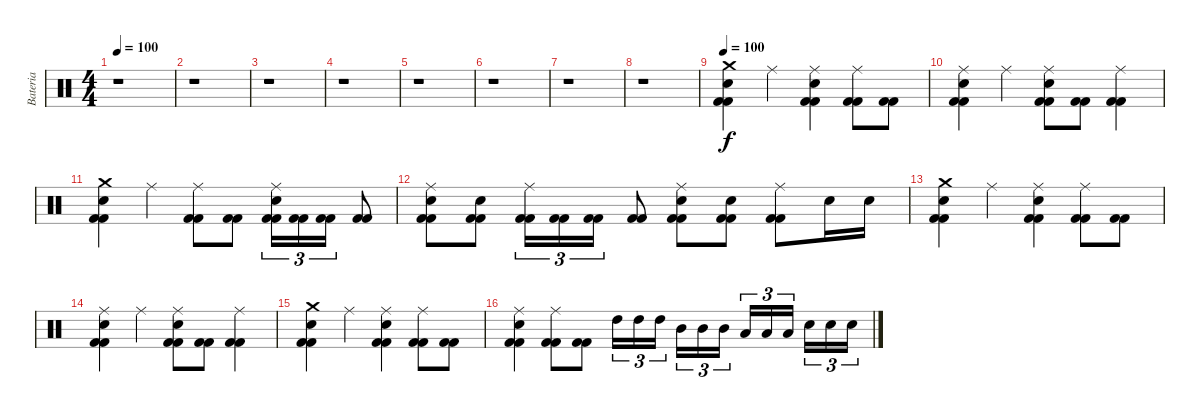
\track ("Bateria" "Bateria") {instrument percussion}
\staff {score}
\articulation defaults
\ts (4 4)
\tempo 100
\clef neutral
\ks c
r.1{dy f} |
r.1 |
r.1 |
r.1 |
r.1 |
r.1 |
r.1 |
r.1 |
\tempo 100
("Kick (hit) 2" "Kick (hit) 2" "Snare (hit) 2" "Crash medium (hit)").4 "Ride (middle)".4 ("Kick (hit) 2" "Kick (hit) 2" "Snare (hit) 2" "Ride (middle)").4 ("Kick (hit) 2" "Kick (hit) 2" "Ride (middle)").8 ("Kick (hit) 2" "Kick (hit) 2").8 |
("Kick (hit) 2" "Kick (hit) 2" "Snare (hit) 2" "Ride (middle)").4 "Ride (middle)".4 ("Kick (hit) 2" "Kick (hit) 2" "Snare (hit) 2" "Ride (middle)").8 ("Kick (hit) 2" "Kick (hit) 2").8 ("Kick (hit) 2" "Kick (hit) 2" "Ride (middle)").4 |
("Kick (hit) 2" "Kick (hit) 2" "Snare (hit) 2" "Crash medium (hit)").4 "Ride (middle)".4 ("Kick (hit) 2" "Kick (hit) 2" "Ride (middle)").8 ("Kick (hit) 2" "Kick (hit) 2").8 ("Kick (hit) 2" "Kick (hit) 2" "Snare (hit) 2" "Ride (middle)").16{tu (3 2)} ("Kick (hit) 2" "Kick (hit) 2").16{tu (3 2)} ("Kick (hit) 2" "Kick (hit) 2").16{tu (3 2)} ("Kick (hit) 2" "Kick (hit) 2").8 |
("Kick (hit) 2" "Kick (hit) 2" "Snare (hit) 2" "Ride (middle)").8 ("Kick (hit) 2" "Kick (hit) 2" "Snare (hit) 2").8 ("Kick (hit) 2" "Kick (hit) 2" "Ride (middle)").16{tu (3 2)} ("Kick (hit) 2" "Kick (hit) 2").16{tu (3 2)} ("Kick (hit) 2" "Kick (hit) 2").16{tu (3 2)} ("Kick (hit) 2" "Kick (hit) 2").8 ("Kick (hit) 2" "Kick (hit) 2" "Snare (hit) 2" "Ride (middle)").8 ("Kick (hit) 2" "Kick (hit) 2" "Snare (hit) 2").8 ("Kick (hit) 2" "Kick (hit) 2" "Ride (middle)").8 "Snare (hit) 2".16 "Snare (hit) 2".16 |
("Kick (hit) 2" "Kick (hit) 2" "Snare (hit) 2" "Crash medium (hit)").4 "Ride (middle)".4 ("Kick (hit) 2" "Kick (hit) 2" "Snare (hit) 2" "Ride (middle)").4 ("Kick (hit) 2" "Kick (hit) 2" "Ride (middle)").8 ("Kick (hit) 2" "Kick (hit) 2").8 |
("Kick (hit) 2" "Kick (hit) 2" "Snare (hit) 2" "Ride (middle)").4 "Ride (middle)".4 ("Kick (hit) 2" "Kick (hit) 2" "Snare (hit) 2" "Ride (middle)").8 ("Kick (hit) 2" "Kick (hit) 2").8 ("Kick (hit) 2" "Kick (hit) 2" "Ride (middle)").4 |
("Kick (hit) 2" "Kick (hit) 2" "Snare (hit) 2" "Crash medium (hit)").4 "Ride (middle)".4 ("Kick (hit) 2" "Kick (hit) 2" "Snare (hit) 2" "Ride (middle)").4 ("Kick (hit) 2" "Kick (hit) 2" "Ride (middle)").8 ("Kick (hit) 2" "Kick (hit) 2").8 |
("Kick (hit) 2" "Kick (hit) 2" "Snare (hit) 2" "Ride (middle)").4 ("Kick (hit) 2" "Kick (hit) 2" "Ride (middle)").8 ("Kick (hit) 2" "Kick (hit) 2").8 "High Tom (hit)".16{tu (3 2)} "High Tom (hit)".16{tu (3 2)} "High Tom (hit)".16{tu (3 2)} "Mid Tom (hit)".16{tu (3 2)} "Mid Tom (hit)".16{tu (3 2)} "Mid Tom (hit)".16{tu (3 2)} "Low Tom (hit)".16{tu (3 2)} "Low Tom (hit)".16{tu (3 2)} "Low Tom (hit)".16{tu (3 2)} "Snare (hit) 2".16{tu (3 2)} "Snare (hit) 2".16{tu (3 2)} "Snare (hit) 2".16{tu (3 2)}
